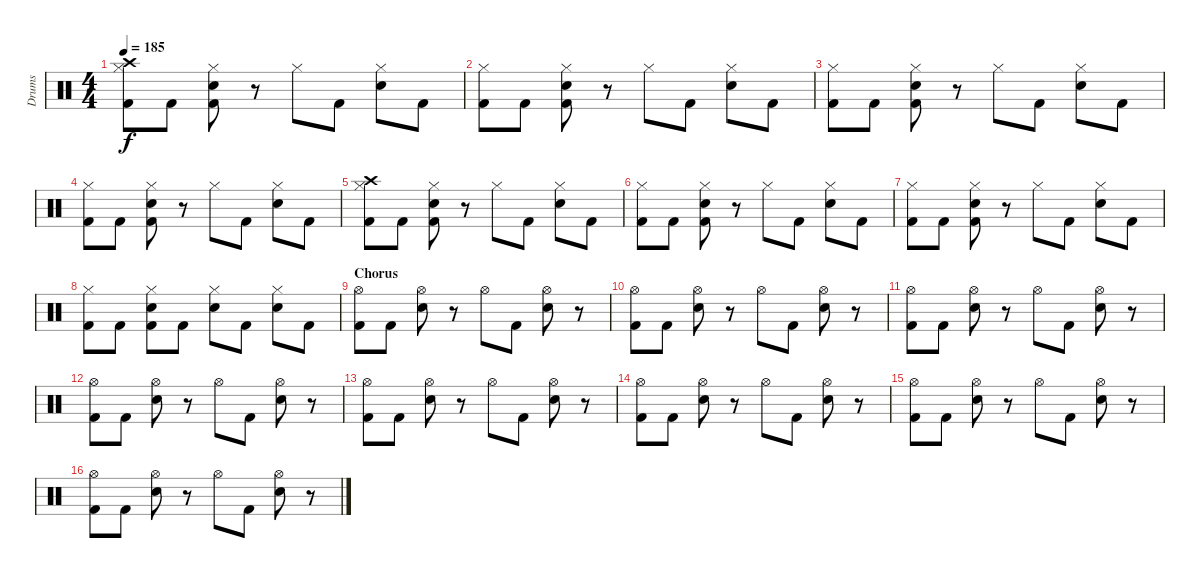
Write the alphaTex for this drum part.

\track ("Drums" "Drums") {instrument percussion}
\staff {score}
\articulation defaults
\ts (4 4)
\tempo 185
\clef neutral
\ks c
("Hi-Hat (closed)" "Kick (hit) 2" "Crash high (hit)").8{dy f} "Kick (hit) 2".8 ("Hi-Hat (closed)" "Kick (hit) 2" "Electric Snare (hit)").8 r.8 "Hi-Hat (closed)".8 "Kick (hit) 2".8 ("Hi-Hat (closed)" "Electric Snare (hit)").8 "Kick (hit) 2".8 |
("Hi-Hat (closed)" "Kick (hit) 2").8 "Kick (hit) 2".8 ("Hi-Hat (closed)" "Kick (hit) 2" "Electric Snare (hit)").8 r.8 "Hi-Hat (closed)".8 "Kick (hit) 2".8 ("Hi-Hat (closed)" "Electric Snare (hit)").8 "Kick (hit) 2".8 |
("Hi-Hat (closed)" "Kick (hit) 2").8 "Kick (hit) 2".8 ("Hi-Hat (closed)" "Kick (hit) 2" "Electric Snare (hit)").8 r.8 "Hi-Hat (closed)".8 "Kick (hit) 2".8 ("Hi-Hat (closed)" "Electric Snare (hit)").8 "Kick (hit) 2".8 |
("Hi-Hat (closed)" "Kick (hit) 2").8 "Kick (hit) 2".8 ("Hi-Hat (closed)" "Kick (hit) 2" "Electric Snare (hit)").8 r.8 "Hi-Hat (closed)".8 "Kick (hit) 2".8 ("Hi-Hat (closed)" "Electric Snare (hit)").8 "Kick (hit) 2".8 |
("Hi-Hat (closed)" "Kick (hit) 2" "Crash high (hit)").8 "Kick (hit) 2".8 ("Hi-Hat (closed)" "Kick (hit) 2" "Electric Snare (hit)").8 r.8 "Hi-Hat (closed)".8 "Kick (hit) 2".8 ("Hi-Hat (closed)" "Electric Snare (hit)").8 "Kick (hit) 2".8 |
("Hi-Hat (closed)" "Kick (hit) 2").8 "Kick (hit) 2".8 ("Hi-Hat (closed)" "Kick (hit) 2" "Electric Snare (hit)").8 r.8 "Hi-Hat (closed)".8 "Kick (hit) 2".8 ("Hi-Hat (closed)" "Electric Snare (hit)").8 "Kick (hit) 2".8 |
("Hi-Hat (closed)" "Kick (hit) 2").8 "Kick (hit) 2".8 ("Hi-Hat (closed)" "Kick (hit) 2" "Electric Snare (hit)").8 r.8 "Hi-Hat (closed)".8 "Kick (hit) 2".8 ("Hi-Hat (closed)" "Electric Snare (hit)").8 "Kick (hit) 2".8 |
("Hi-Hat (closed)" "Kick (hit) 2").8 "Kick (hit) 2".8 ("Hi-Hat (closed)" "Kick (hit) 2" "Electric Snare (hit)").8 "Kick (hit) 2".8 ("Hi-Hat (closed)" "Electric Snare (hit)").8 "Kick (hit) 2".8 ("Hi-Hat (closed)" "Electric Snare (hit)").8 "Kick (hit) 2".8 |
\section ("" "Chorus")
("Hi-Hat (open)" "Kick (hit) 2").8 "Kick (hit) 2".8 ("Hi-Hat (open)" "Electric Snare (hit)").8 r.8 "Hi-Hat (open)".8 "Kick (hit) 2".8 ("Hi-Hat (open)" "Electric Snare (hit)").8 r.8 |
("Hi-Hat (open)" "Kick (hit) 2").8 "Kick (hit) 2".8 ("Hi-Hat (open)" "Electric Snare (hit)").8 r.8 "Hi-Hat (open)".8 "Kick (hit) 2".8 ("Hi-Hat (open)" "Electric Snare (hit)").8 r.8 |
("Hi-Hat (open)" "Kick (hit) 2").8 "Kick (hit) 2".8 ("Hi-Hat (open)" "Electric Snare (hit)").8 r.8 "Hi-Hat (open)".8 "Kick (hit) 2".8 ("Hi-Hat (open)" "Electric Snare (hit)").8 r.8 |
("Hi-Hat (open)" "Kick (hit) 2").8 "Kick (hit) 2".8 ("Hi-Hat (open)" "Electric Snare (hit)").8 r.8 "Hi-Hat (open)".8 "Kick (hit) 2".8 ("Hi-Hat (open)" "Electric Snare (hit)").8 r.8 |
("Hi-Hat (open)" "Kick (hit) 2").8 "Kick (hit) 2".8 ("Hi-Hat (open)" "Electric Snare (hit)").8 r.8 "Hi-Hat (open)".8 "Kick (hit) 2".8 ("Hi-Hat (open)" "Electric Snare (hit)").8 r.8 |
("Hi-Hat (open)" "Kick (hit) 2").8 "Kick (hit) 2".8 ("Hi-Hat (open)" "Electric Snare (hit)").8 r.8 "Hi-Hat (open)".8 "Kick (hit) 2".8 ("Hi-Hat (open)" "Electric Snare (hit)").8 r.8 |
("Hi-Hat (open)" "Kick (hit) 2").8 "Kick (hit) 2".8 ("Hi-Hat (open)" "Electric Snare (hit)").8 r.8 "Hi-Hat (open)".8 "Kick (hit) 2".8 ("Hi-Hat (open)" "Electric Snare (hit)").8 r.8 |
("Hi-Hat (open)" "Kick (hit) 2").8 "Kick (hit) 2".8 ("Hi-Hat (open)" "Electric Snare (hit)").8 r.8 "Hi-Hat (open)".8 "Kick (hit) 2".8 ("Hi-Hat (open)" "Electric Snare (hit)").8 r.8
